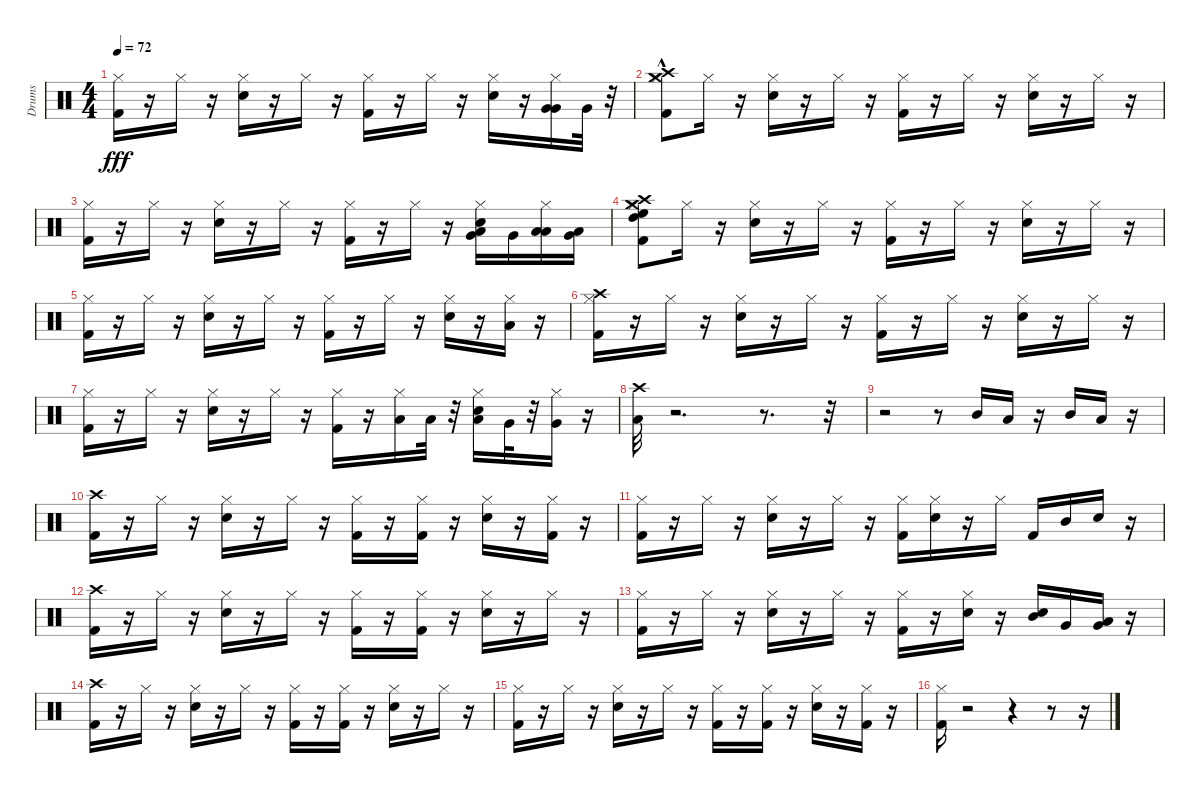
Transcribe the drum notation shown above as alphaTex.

\track ("Drums" "Drums") {instrument percussion}
\staff {score}
\articulation defaults
\ts (4 4)
\tempo 72
\clef neutral
\ks c
("Hi-Hat (closed)" "Kick (hit) 2").16{dy fff} r.16 "Hi-Hat (closed)".16 r.16 ("Hi-Hat (closed)" "Snare (hit) 2").16 r.16 "Hi-Hat (closed)".16 r.16 ("Kick (hit) 2" "Hi-Hat (closed)").16 r.16 "Hi-Hat (closed)".16 r.16 ("Snare (hit) 2" "Hi-Hat (closed)").16 r.16 ("Very Low Tom (hit)" "Very Low Tom (hit)" "Hi-Hat (closed)").16 "Very Low Tom (hit)".32 r.32 |
("Crash high (hit)"{hac} "Crash medium (hit)" "Hi-Hat (closed)" "Kick (hit) 2").8 "Hi-Hat (closed)".16 r.16 ("Hi-Hat (closed)" "Snare (hit) 2").16 r.16 "Hi-Hat (closed)".16 r.16 ("Hi-Hat (closed)" "Kick (hit) 2").16 r.16 "Hi-Hat (closed)".16 r.16 ("Snare (hit) 2" "Hi-Hat (closed)").16 r.16 "Hi-Hat (closed)".16 r.16 |
("Hi-Hat (closed)" "Kick (hit) 2").16 r.16 "Hi-Hat (closed)".16 r.16 ("Hi-Hat (closed)" "Snare (hit) 2").16 r.16 "Hi-Hat (closed)".16 r.16 ("Hi-Hat (closed)" "Kick (hit) 2").16 r.16 "Hi-Hat (closed)".16 r.16 ("Snare (hit) 2" "Hi-Hat (closed)" "Very Low Tom (hit)" "Low Tom (hit)").16 "Very Low Tom (hit)".16 ("Low Floor Tom (hit)" "Hi-Hat (closed)" "Low Floor Tom (hit)").16 ("Low Floor Tom (hit)" "Very Low Tom (hit)").16 |
("Crash high (hit)" "Crash medium (hit)" "Kick (hit) 2" "Hi-Hat (closed)" "High Tom (hit)" "High Floor Tom (hit)").8 "Hi-Hat (closed)".16 r.16 ("Snare (hit) 2" "Hi-Hat (closed)").16 r.16 "Hi-Hat (closed)".16 r.16 ("Hi-Hat (closed)" "Kick (hit) 2").16 r.16 "Hi-Hat (closed)".16 r.16 ("Snare (hit) 2" "Hi-Hat (closed)").16 r.16 "Hi-Hat (closed)".16 r.16 |
("Kick (hit) 2" "Hi-Hat (closed)").16 r.16 "Hi-Hat (closed)".16 r.16 ("Hi-Hat (closed)" "Snare (hit) 2").16 r.16 "Hi-Hat (closed)".16 r.16 ("Hi-Hat (closed)" "Kick (hit) 2").16 r.16 "Hi-Hat (closed)".16 r.16 ("Snare (hit) 2" "Hi-Hat (closed)").16 r.16 ("Hi-Hat (closed)" "Low Floor Tom (hit)").16 r.16 |
("Kick (hit) 2" "Hi-Hat (closed)" "Crash high (hit)").16 r.16 "Hi-Hat (closed)".16 r.16 ("Hi-Hat (closed)" "Snare (hit) 2").16 r.16 "Hi-Hat (closed)".16 r.16 ("Kick (hit) 2" "Hi-Hat (closed)").16 r.16 "Hi-Hat (closed)".16 r.16 ("Snare (hit) 2" "Hi-Hat (closed)").16 r.16 "Hi-Hat (closed)".16 r.16 |
("Kick (hit) 2" "Hi-Hat (closed)").16 r.16 "Hi-Hat (closed)".16 r.16 ("Snare (hit) 2" "Hi-Hat (closed)").16 r.16 "Hi-Hat (closed)".16 r.16 ("Kick (hit) 2" "Hi-Hat (closed)").16 r.16 ("Low Tom (hit)" "Hi-Hat (closed)").16 "Low Tom (hit)".32 r.32 ("Low Tom (hit)" "Hi-Hat (closed)" "Snare (hit) 2").16 "Very Low Tom (hit)".32 r.32 ("Hi-Hat (closed)" "Very Low Tom (hit)").16 r.16 |
("Low Floor Tom (hit)" "Crash high (hit)").32 r.2{d} r.8{d} r.32 |
r.2 r.8 "Mid Tom (hit)".16 "Low Floor Tom (hit)".16 r.16 "Mid Tom (hit)".16 "Low Floor Tom (hit)".16 r.16 |
("Crash high (hit)" "Kick (hit) 2").16 r.16 "Hi-Hat (closed)".16 r.16 ("Snare (hit) 2" "Hi-Hat (closed)").16 r.16 "Hi-Hat (closed)".16 r.16 ("Kick (hit) 2" "Hi-Hat (closed)").16 r.16 ("Hi-Hat (closed)" "Kick (hit) 2").16 r.16 ("Snare (hit) 2" "Hi-Hat (closed)").16 r.16 ("Hi-Hat (closed)" "Kick (hit) 2").16 r.16 |
("Hi-Hat (closed)" "Kick (hit) 2").16 r.16 "Hi-Hat (closed)".16 r.16 ("Hi-Hat (closed)" "Snare (hit) 2").16 r.16 "Hi-Hat (closed)".16{volume 14} r.16 ("Kick (hit) 2" "Hi-Hat (closed)").16{volume 14} ("Snare (hit) 2" "Hi-Hat (closed)").16{volume 13} r.16 "Hi-Hat (closed)".16{volume 12} "Kick (hit) 2".16{volume 12} "Mid Tom (hit)".16{volume 12} "Snare (hit) 2".16{volume 11} r.16 |
("Crash high (hit)" "Kick (hit) 2").16{volume 11} r.16 "Hi-Hat (closed)".16{volume 10} r.16 ("Snare (hit) 2" "Hi-Hat (closed)").16{volume 10} r.16 "Hi-Hat (closed)".16{volume 9} r.16 ("Hi-Hat (closed)" "Kick (hit) 2").16{volume 9} r.16 ("Hi-Hat (closed)" "Kick (hit) 2").16{volume 8} r.16 ("Snare (hit) 2" "Hi-Hat (closed)").16{volume 7} r.16 "Hi-Hat (closed)".16{volume 7} r.16 |
("Hi-Hat (closed)" "Kick (hit) 2").16{volume 6} r.16 "Hi-Hat (closed)".16{volume 6} r.16 ("Hi-Hat (closed)" "Snare (hit) 2").16{volume 5} r.16 "Hi-Hat (closed)".16{volume 5} r.16 ("Hi-Hat (closed)" "Kick (hit) 2").16{volume 4} r.16 ("Hi-Hat (closed)" "Snare (hit) 2").16{volume 4} r.16 ("Snare (hit) 2" "Mid Tom (hit)").16{volume 4} "Very Low Tom (hit)".16{volume 3} ("Very Low Tom (hit)" "Low Floor Tom (hit)").16{volume 3} r.16 |
("Crash high (hit)" "Kick (hit) 2").16{volume 2} r.16 "Hi-Hat (closed)".16{volume 1} r.16 ("Snare (hit) 2" "Hi-Hat (closed)").16{volume 0} r.16 "Hi-Hat (closed)".16{volume 0} r.16 ("Hi-Hat (closed)" "Kick (hit) 2").16 r.16 ("Kick (hit) 2" "Hi-Hat (closed)").16 r.16 ("Hi-Hat (closed)" "Snare (hit) 2").16 r.16 "Hi-Hat (closed)".16 r.16 |
("Hi-Hat (closed)" "Kick (hit) 2").16 r.16 "Hi-Hat (closed)".16 r.16 ("Snare (hit) 2" "Hi-Hat (closed)").16 r.16 "Hi-Hat (closed)".16 r.16 ("Hi-Hat (closed)" "Kick (hit) 2").16 r.16 ("Kick (hit) 2" "Hi-Hat (closed)").16 r.16 ("Hi-Hat (closed)" "Snare (hit) 2").16 r.16 ("Hi-Hat (closed)" "Kick (hit) 2").16 r.16 |
("Hi-Hat (closed)" "Kick (hit) 2").16 r.2 r.4 r.8 r.16
